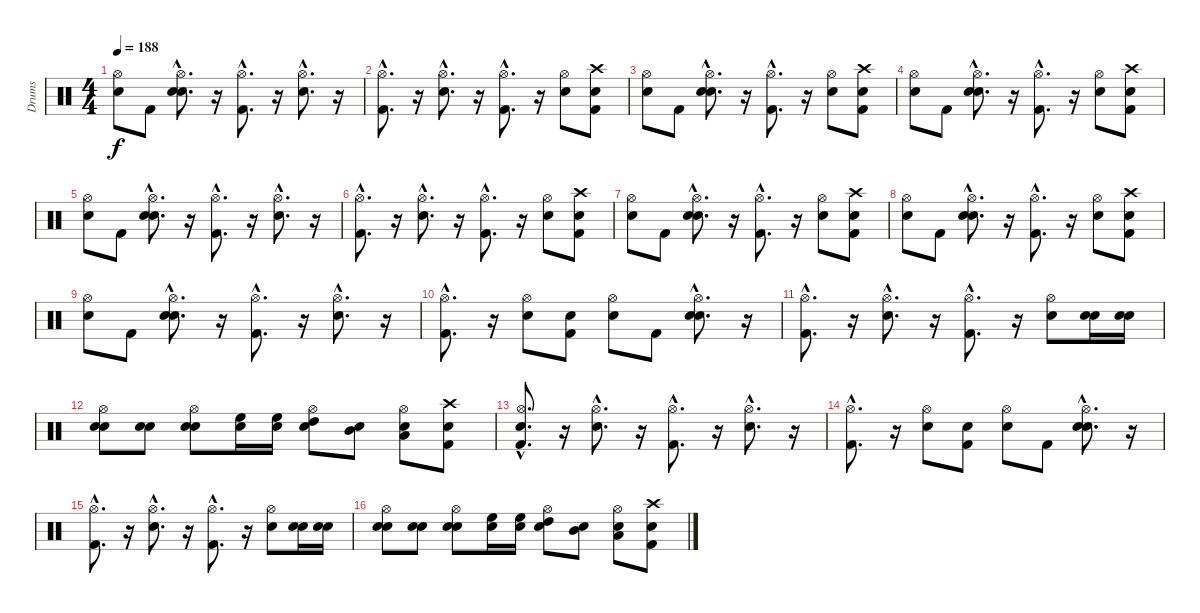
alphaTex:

\track ("Drums" "Drums") {instrument percussion}
\staff {score}
\articulation defaults
\ts (4 4)
\tempo 188
\clef neutral
\ks c
("Snare (hit)" "Hi-Hat (open)").8{dy f} "Kick (hit) 2".8 ("Snare (hit)"{hac} "Snare (hit) 2"{hac} "Hi-Hat (open)"{hac}).8{d} r.16 ("Kick (hit) 2"{hac} "Hi-Hat (open)"{hac}).8{d} r.16 ("Snare (hit) 2"{hac} "Hi-Hat (open)"{hac}).8{d} r.16 |
("Kick (hit) 2"{hac} "Hi-Hat (open)"{hac}).8{d} r.16 ("Snare (hit) 2"{hac} "Hi-Hat (open)"{hac}).8{d} r.16 ("Kick (hit) 2"{hac} "Hi-Hat (open)"{hac}).8{d} r.16 ("Snare (hit) 2" "Hi-Hat (open)").8 ("Snare (hit)" "Kick (hit) 2" "Crash high (hit)").8 |
("Snare (hit)" "Hi-Hat (open)").8 "Kick (hit) 2".8 ("Snare (hit)"{hac} "Snare (hit) 2"{hac} "Hi-Hat (open)"{hac}).8{d} r.16 ("Kick (hit) 2"{hac} "Hi-Hat (open)"{hac}).8{d} r.16 ("Snare (hit) 2" "Hi-Hat (open)").8 ("Snare (hit)" "Kick (hit) 2" "Crash high (hit)").8 |
("Snare (hit)" "Hi-Hat (open)").8 "Kick (hit) 2".8 ("Snare (hit)"{hac} "Snare (hit) 2"{hac} "Hi-Hat (open)"{hac}).8{d} r.16 ("Kick (hit) 2"{hac} "Hi-Hat (open)"{hac}).8{d} r.16 ("Snare (hit) 2" "Hi-Hat (open)").8 ("Snare (hit)" "Kick (hit) 2" "Crash high (hit)").8 |
("Snare (hit)" "Hi-Hat (open)").8 "Kick (hit) 2".8 ("Snare (hit)"{hac} "Snare (hit) 2"{hac} "Hi-Hat (open)"{hac}).8{d} r.16 ("Kick (hit) 2"{hac} "Hi-Hat (open)"{hac}).8{d} r.16 ("Snare (hit) 2"{hac} "Hi-Hat (open)"{hac}).8{d} r.16 |
("Kick (hit) 2"{hac} "Hi-Hat (open)"{hac}).8{d} r.16 ("Snare (hit) 2"{hac} "Hi-Hat (open)"{hac}).8{d} r.16 ("Kick (hit) 2"{hac} "Hi-Hat (open)"{hac}).8{d} r.16 ("Snare (hit) 2" "Hi-Hat (open)").8 ("Snare (hit)" "Kick (hit) 2" "Crash high (hit)").8 |
("Snare (hit)" "Hi-Hat (open)").8 "Kick (hit) 2".8 ("Snare (hit)"{hac} "Snare (hit) 2"{hac} "Hi-Hat (open)"{hac}).8{d} r.16 ("Kick (hit) 2"{hac} "Hi-Hat (open)"{hac}).8{d} r.16 ("Snare (hit) 2" "Hi-Hat (open)").8 ("Snare (hit)" "Kick (hit) 2" "Crash high (hit)").8 |
("Snare (hit)" "Hi-Hat (open)").8 "Kick (hit) 2".8 ("Snare (hit)"{hac} "Snare (hit) 2"{hac} "Hi-Hat (open)"{hac}).8{d} r.16 ("Kick (hit) 2"{hac} "Hi-Hat (open)"{hac}).8{d} r.16 ("Snare (hit) 2" "Hi-Hat (open)").8 ("Snare (hit)" "Kick (hit) 2" "Crash high (hit)").8 |
("Snare (hit)" "Hi-Hat (open)").8 "Kick (hit) 2".8 ("Snare (hit)"{hac} "Snare (hit) 2"{hac} "Hi-Hat (open)"{hac}).8{d} r.16 ("Kick (hit) 2"{hac} "Hi-Hat (open)"{hac}).8{d} r.16 ("Snare (hit) 2"{hac} "Hi-Hat (open)"{hac}).8{d} r.16 |
("Kick (hit) 2"{hac} "Hi-Hat (open)"{hac}).8{d} r.16 ("Snare (hit) 2" "Hi-Hat (open)").8 ("Snare (hit)" "Kick (hit) 2").8 ("Snare (hit)" "Hi-Hat (open)").8 "Kick (hit) 2".8 ("Snare (hit)"{hac} "Snare (hit) 2"{hac} "Hi-Hat (open)"{hac}).8{d} r.16 |
("Kick (hit) 2"{hac} "Hi-Hat (open)"{hac}).8{d} r.16 ("Snare (hit) 2"{hac} "Hi-Hat (open)"{hac}).8{d} r.16 ("Kick (hit) 2"{hac} "Hi-Hat (open)"{hac}).8{d} r.16 ("Snare (hit) 2" "Hi-Hat (open)").8 ("Snare (hit)" "Snare (hit) 2").16 ("Snare (hit)" "Snare (hit) 2").16 |
("Snare (hit)" "Snare (hit) 2" "Hi-Hat (open)").8 ("Snare (hit)" "Snare (hit) 2").8 ("Snare (hit)" "Snare (hit) 2" "Hi-Hat (open)").8 ("Snare (hit)" "High Floor Tom (hit)").16 ("Snare (hit)" "High Floor Tom (hit)").16 ("Snare (hit)" "Hi-Hat (open)" "High Tom (hit)").8 ("Snare (hit)" "Mid Tom (hit)").8 ("Snare (hit)" "Low Tom (hit)" "Hi-Hat (open)").8 ("Snare (hit)" "Kick (hit) 2" "Crash high (hit)").8 |
("Snare (hit)"{hac} "Kick (hit) 2"{hac} "Hi-Hat (open)"{hac}).8{d} r.16 ("Snare (hit) 2"{hac} "Hi-Hat (open)"{hac}).8{d} r.16 ("Kick (hit) 2"{hac} "Hi-Hat (open)"{hac}).8{d} r.16 ("Snare (hit) 2"{hac} "Hi-Hat (open)"{hac}).8{d} r.16 |
("Kick (hit) 2"{hac} "Hi-Hat (open)"{hac}).8{d} r.16 ("Snare (hit) 2" "Hi-Hat (open)").8 ("Snare (hit)" "Kick (hit) 2").8 ("Snare (hit)" "Hi-Hat (open)").8 "Kick (hit) 2".8 ("Snare (hit)"{hac} "Snare (hit) 2"{hac} "Hi-Hat (open)"{hac}).8{d} r.16 |
("Kick (hit) 2"{hac} "Hi-Hat (open)"{hac}).8{d} r.16 ("Snare (hit) 2"{hac} "Hi-Hat (open)"{hac}).8{d} r.16 ("Kick (hit) 2"{hac} "Hi-Hat (open)"{hac}).8{d} r.16 ("Snare (hit) 2" "Hi-Hat (open)").8 ("Snare (hit)" "Snare (hit) 2").16 ("Snare (hit)" "Snare (hit) 2").16 |
("Snare (hit)" "Snare (hit) 2" "Hi-Hat (open)").8 ("Snare (hit)" "Snare (hit) 2").8 ("Snare (hit)" "Snare (hit) 2" "Hi-Hat (open)").8 ("Snare (hit)" "High Floor Tom (hit)").16 ("Snare (hit)" "High Floor Tom (hit)").16 ("Snare (hit)" "Hi-Hat (open)" "High Tom (hit)").8 ("Snare (hit)" "Mid Tom (hit)").8 ("Snare (hit)" "Low Tom (hit)" "Hi-Hat (open)").8 ("Snare (hit)" "Kick (hit) 2" "Crash high (hit)").8
